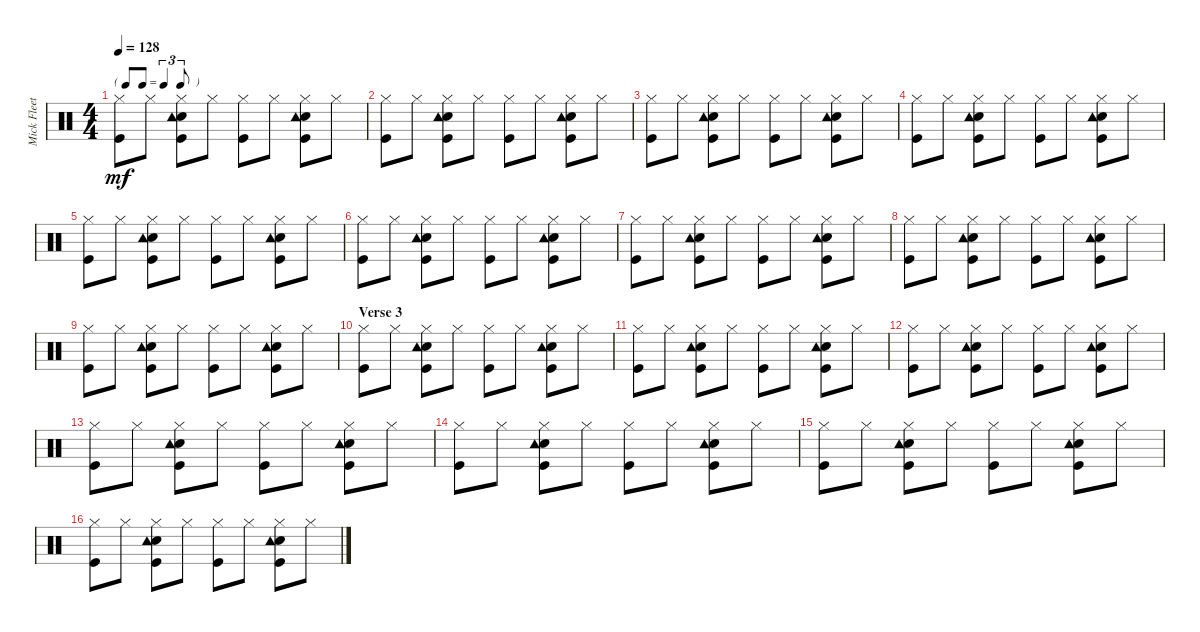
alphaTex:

\track ("Mick Fleetwood - Drums" "Mick Fleet") {instrument percussion}
\staff {score}
\articulation defaults
\ts (4 4)
\tf triplet8th
\tempo 128
\clef neutral
\ks c
("Kick (hit)" "Hi-Hat (closed)").8{dy mf} "Hi-Hat (closed)".8 ("Kick (hit)" "Snare (hit) 2" "Hi-Hat (closed)" "Tambourine (hit)").8 "Hi-Hat (closed)".8 ("Kick (hit)" "Hi-Hat (closed)").8 "Hi-Hat (closed)".8 ("Kick (hit)" "Snare (hit) 2" "Hi-Hat (closed)" "Tambourine (hit)").8 "Hi-Hat (closed)".8 |
("Kick (hit)" "Hi-Hat (closed)").8 "Hi-Hat (closed)".8 ("Kick (hit)" "Snare (hit) 2" "Hi-Hat (closed)" "Tambourine (hit)").8 "Hi-Hat (closed)".8 ("Kick (hit)" "Hi-Hat (closed)").8 "Hi-Hat (closed)".8 ("Kick (hit)" "Snare (hit) 2" "Hi-Hat (closed)" "Tambourine (hit)").8 "Hi-Hat (closed)".8 |
("Kick (hit)" "Hi-Hat (closed)").8 "Hi-Hat (closed)".8 ("Kick (hit)" "Snare (hit) 2" "Hi-Hat (closed)" "Tambourine (hit)").8 "Hi-Hat (closed)".8 ("Kick (hit)" "Hi-Hat (closed)").8 "Hi-Hat (closed)".8 ("Kick (hit)" "Snare (hit) 2" "Hi-Hat (closed)" "Tambourine (hit)").8 "Hi-Hat (closed)".8 |
("Kick (hit)" "Hi-Hat (closed)").8 "Hi-Hat (closed)".8 ("Kick (hit)" "Snare (hit) 2" "Hi-Hat (closed)" "Tambourine (hit)").8 "Hi-Hat (closed)".8 ("Kick (hit)" "Hi-Hat (closed)").8 "Hi-Hat (closed)".8 ("Kick (hit)" "Snare (hit) 2" "Hi-Hat (closed)" "Tambourine (hit)").8 "Hi-Hat (closed)".8 |
("Kick (hit)" "Hi-Hat (closed)").8 "Hi-Hat (closed)".8 ("Kick (hit)" "Snare (hit) 2" "Hi-Hat (closed)" "Tambourine (hit)").8 "Hi-Hat (closed)".8 ("Kick (hit)" "Hi-Hat (closed)").8 "Hi-Hat (closed)".8 ("Kick (hit)" "Snare (hit) 2" "Hi-Hat (closed)" "Tambourine (hit)").8 "Hi-Hat (closed)".8 |
("Kick (hit)" "Hi-Hat (closed)").8 "Hi-Hat (closed)".8 ("Kick (hit)" "Snare (hit) 2" "Hi-Hat (closed)" "Tambourine (hit)").8 "Hi-Hat (closed)".8 ("Kick (hit)" "Hi-Hat (closed)").8 "Hi-Hat (closed)".8 ("Kick (hit)" "Snare (hit) 2" "Hi-Hat (closed)" "Tambourine (hit)").8 "Hi-Hat (closed)".8 |
("Kick (hit)" "Hi-Hat (closed)").8 "Hi-Hat (closed)".8 ("Kick (hit)" "Snare (hit) 2" "Hi-Hat (closed)" "Tambourine (hit)").8 "Hi-Hat (closed)".8 ("Kick (hit)" "Hi-Hat (closed)").8 "Hi-Hat (closed)".8 ("Kick (hit)" "Snare (hit) 2" "Hi-Hat (closed)" "Tambourine (hit)").8 "Hi-Hat (closed)".8 |
("Kick (hit)" "Hi-Hat (closed)").8 "Hi-Hat (closed)".8 ("Kick (hit)" "Snare (hit) 2" "Hi-Hat (closed)" "Tambourine (hit)").8 "Hi-Hat (closed)".8 ("Kick (hit)" "Hi-Hat (closed)").8 "Hi-Hat (closed)".8 ("Kick (hit)" "Snare (hit) 2" "Hi-Hat (closed)" "Tambourine (hit)").8 "Hi-Hat (closed)".8 |
("Kick (hit)" "Hi-Hat (closed)").8 "Hi-Hat (closed)".8 ("Kick (hit)" "Snare (hit) 2" "Hi-Hat (closed)" "Tambourine (hit)").8 "Hi-Hat (closed)".8 ("Kick (hit)" "Hi-Hat (closed)").8 "Hi-Hat (closed)".8 ("Kick (hit)" "Snare (hit) 2" "Hi-Hat (closed)" "Tambourine (hit)").8 "Hi-Hat (closed)".8 |
\section ("" "Verse 3")
("Kick (hit)" "Hi-Hat (closed)").8 "Hi-Hat (closed)".8 ("Kick (hit)" "Snare (hit) 2" "Hi-Hat (closed)" "Tambourine (hit)").8 "Hi-Hat (closed)".8 ("Kick (hit)" "Hi-Hat (closed)").8 "Hi-Hat (closed)".8 ("Kick (hit)" "Snare (hit) 2" "Hi-Hat (closed)" "Tambourine (hit)").8 "Hi-Hat (closed)".8 |
("Kick (hit)" "Hi-Hat (closed)").8 "Hi-Hat (closed)".8 ("Kick (hit)" "Snare (hit) 2" "Hi-Hat (closed)" "Tambourine (hit)").8 "Hi-Hat (closed)".8 ("Kick (hit)" "Hi-Hat (closed)").8 "Hi-Hat (closed)".8 ("Kick (hit)" "Snare (hit) 2" "Hi-Hat (closed)" "Tambourine (hit)").8 "Hi-Hat (closed)".8 |
("Kick (hit)" "Hi-Hat (closed)").8 "Hi-Hat (closed)".8 ("Kick (hit)" "Snare (hit) 2" "Hi-Hat (closed)" "Tambourine (hit)").8 "Hi-Hat (closed)".8 ("Kick (hit)" "Hi-Hat (closed)").8 "Hi-Hat (closed)".8 ("Kick (hit)" "Snare (hit) 2" "Hi-Hat (closed)" "Tambourine (hit)").8 "Hi-Hat (closed)".8 |
("Kick (hit)" "Hi-Hat (closed)").8 "Hi-Hat (closed)".8 ("Kick (hit)" "Snare (hit) 2" "Hi-Hat (closed)" "Tambourine (hit)").8 "Hi-Hat (closed)".8 ("Kick (hit)" "Hi-Hat (closed)").8 "Hi-Hat (closed)".8 ("Kick (hit)" "Snare (hit) 2" "Hi-Hat (closed)" "Tambourine (hit)").8 "Hi-Hat (closed)".8 |
("Kick (hit)" "Hi-Hat (closed)").8 "Hi-Hat (closed)".8 ("Kick (hit)" "Snare (hit) 2" "Hi-Hat (closed)" "Tambourine (hit)").8 "Hi-Hat (closed)".8 ("Kick (hit)" "Hi-Hat (closed)").8 "Hi-Hat (closed)".8 ("Kick (hit)" "Snare (hit) 2" "Hi-Hat (closed)" "Tambourine (hit)").8 "Hi-Hat (closed)".8 |
("Kick (hit)" "Hi-Hat (closed)").8 "Hi-Hat (closed)".8 ("Kick (hit)" "Snare (hit) 2" "Hi-Hat (closed)" "Tambourine (hit)").8 "Hi-Hat (closed)".8 ("Kick (hit)" "Hi-Hat (closed)").8 "Hi-Hat (closed)".8 ("Kick (hit)" "Snare (hit) 2" "Hi-Hat (closed)" "Tambourine (hit)").8 "Hi-Hat (closed)".8 |
("Kick (hit)" "Hi-Hat (closed)").8 "Hi-Hat (closed)".8 ("Kick (hit)" "Snare (hit) 2" "Hi-Hat (closed)" "Tambourine (hit)").8 "Hi-Hat (closed)".8 ("Kick (hit)" "Hi-Hat (closed)").8 "Hi-Hat (closed)".8 ("Kick (hit)" "Snare (hit) 2" "Hi-Hat (closed)" "Tambourine (hit)").8 "Hi-Hat (closed)".8
